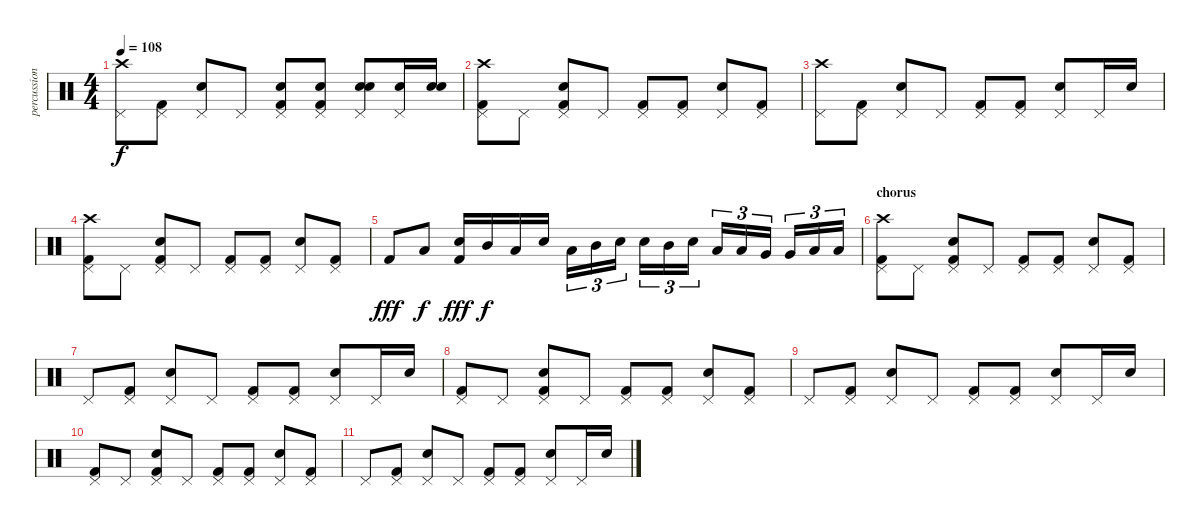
\track ("percussion" "percussion") {instrument percussion}
\staff {score}
\articulation defaults
\ts (4 4)
\tempo 108
\clef neutral
\ks c
("Crash high (hit)" "Pedal Hi-Hat (hit)").8{dy f} ("Pedal Hi-Hat (hit)" "Kick (hit) 2").8 ("Pedal Hi-Hat (hit)" "Snare (hit) 2").8 "Pedal Hi-Hat (hit)".8 ("Snare (hit) 2" "Pedal Hi-Hat (hit)" "Kick (hit) 2").8 ("Snare (hit) 2" "Pedal Hi-Hat (hit)" "Kick (hit) 2").8 ("Snare (hit) 2" "Pedal Hi-Hat (hit)" "Snare (hit) 2").8 ("Snare (hit) 2" "Pedal Hi-Hat (hit)").16 ("Snare (hit) 2" "Snare (hit) 2").16 |
("Crash high (hit)" "Pedal Hi-Hat (hit)" "Kick (hit) 2").8 "Pedal Hi-Hat (hit)".8 ("Pedal Hi-Hat (hit)" "Kick (hit) 2" "Snare (hit) 2").8 "Pedal Hi-Hat (hit)".8 ("Pedal Hi-Hat (hit)" "Kick (hit) 2").8 ("Pedal Hi-Hat (hit)" "Kick (hit) 2").8 ("Pedal Hi-Hat (hit)" "Snare (hit) 2").8 ("Pedal Hi-Hat (hit)" "Kick (hit) 2").8 |
("Crash high (hit)" "Pedal Hi-Hat (hit)").8 ("Pedal Hi-Hat (hit)" "Kick (hit) 2").8 ("Pedal Hi-Hat (hit)" "Snare (hit) 2").8 "Pedal Hi-Hat (hit)".8 ("Pedal Hi-Hat (hit)" "Kick (hit) 2").8 ("Pedal Hi-Hat (hit)" "Kick (hit) 2").8 ("Pedal Hi-Hat (hit)" "Snare (hit) 2").8 "Pedal Hi-Hat (hit)".16 "Snare (hit) 2".16 |
("Crash high (hit)" "Pedal Hi-Hat (hit)" "Kick (hit) 2").8 "Pedal Hi-Hat (hit)".8 ("Pedal Hi-Hat (hit)" "Kick (hit) 2" "Snare (hit) 2").8 "Pedal Hi-Hat (hit)".8 ("Pedal Hi-Hat (hit)" "Kick (hit) 2").8 ("Pedal Hi-Hat (hit)" "Kick (hit) 2").8 ("Pedal Hi-Hat (hit)" "Snare (hit) 2").8 ("Pedal Hi-Hat (hit)" "Kick (hit) 2").8 |
"Kick (hit) 2".8{dy fff} "Low Tom (hit)".8{dy f} ("Snare (hit) 2" "Kick (hit) 2").16{dy fff} "Mid Tom (hit)".16{dy f} "Low Tom (hit)".16 "Snare (hit) 2".16 "Low Tom (hit)".16{tu (3 2)} "Mid Tom (hit)".16{tu (3 2)} "Snare (hit) 2".16{tu (3 2)} "Snare (hit) 2".16{tu (3 2)} "Mid Tom (hit)".16{tu (3 2)} "Snare (hit) 2".16{tu (3 2)} "Low Tom (hit)".16{tu (3 2)} "Low Tom (hit)".16{tu (3 2)} "Very Low Tom (hit)".16{tu (3 2)} "Very Low Tom (hit)".16{tu (3 2)} "Low Floor Tom (hit)".16{tu (3 2)} "Low Floor Tom (hit)".16{tu (3 2)} |
\section ("" "chorus")
("Crash high (hit)" "Pedal Hi-Hat (hit)" "Kick (hit) 2").8 "Pedal Hi-Hat (hit)".8 ("Pedal Hi-Hat (hit)" "Kick (hit) 2" "Snare (hit) 2").8 "Pedal Hi-Hat (hit)".8 ("Pedal Hi-Hat (hit)" "Kick (hit) 2").8 ("Pedal Hi-Hat (hit)" "Kick (hit) 2").8 ("Pedal Hi-Hat (hit)" "Snare (hit) 2").8 ("Pedal Hi-Hat (hit)" "Kick (hit) 2").8 |
"Pedal Hi-Hat (hit)".8 ("Pedal Hi-Hat (hit)" "Kick (hit) 2").8 ("Pedal Hi-Hat (hit)" "Snare (hit) 2").8 "Pedal Hi-Hat (hit)".8 ("Pedal Hi-Hat (hit)" "Kick (hit) 2").8 ("Pedal Hi-Hat (hit)" "Kick (hit) 2").8 ("Pedal Hi-Hat (hit)" "Snare (hit) 2").8 "Pedal Hi-Hat (hit)".16 "Snare (hit) 2".16 |
("Pedal Hi-Hat (hit)" "Kick (hit) 2").8 "Pedal Hi-Hat (hit)".8 ("Pedal Hi-Hat (hit)" "Kick (hit) 2" "Snare (hit) 2").8 "Pedal Hi-Hat (hit)".8 ("Pedal Hi-Hat (hit)" "Kick (hit) 2").8 ("Pedal Hi-Hat (hit)" "Kick (hit) 2").8 ("Pedal Hi-Hat (hit)" "Snare (hit) 2").8 ("Pedal Hi-Hat (hit)" "Kick (hit) 2").8 |
"Pedal Hi-Hat (hit)".8 ("Pedal Hi-Hat (hit)" "Kick (hit) 2").8 ("Pedal Hi-Hat (hit)" "Snare (hit) 2").8 "Pedal Hi-Hat (hit)".8 ("Pedal Hi-Hat (hit)" "Kick (hit) 2").8 ("Pedal Hi-Hat (hit)" "Kick (hit) 2").8 ("Pedal Hi-Hat (hit)" "Snare (hit) 2").8 "Pedal Hi-Hat (hit)".16 "Snare (hit) 2".16 |
("Pedal Hi-Hat (hit)" "Kick (hit) 2").8 "Pedal Hi-Hat (hit)".8 ("Pedal Hi-Hat (hit)" "Kick (hit) 2" "Snare (hit) 2").8 "Pedal Hi-Hat (hit)".8 ("Pedal Hi-Hat (hit)" "Kick (hit) 2").8 ("Pedal Hi-Hat (hit)" "Kick (hit) 2").8 ("Pedal Hi-Hat (hit)" "Snare (hit) 2").8 ("Pedal Hi-Hat (hit)" "Kick (hit) 2").8 |
"Pedal Hi-Hat (hit)".8 ("Pedal Hi-Hat (hit)" "Kick (hit) 2").8 ("Pedal Hi-Hat (hit)" "Snare (hit) 2").8 "Pedal Hi-Hat (hit)".8 ("Pedal Hi-Hat (hit)" "Kick (hit) 2").8 ("Pedal Hi-Hat (hit)" "Kick (hit) 2").8 ("Pedal Hi-Hat (hit)" "Snare (hit) 2").8 "Pedal Hi-Hat (hit)".16 "Snare (hit) 2".16
